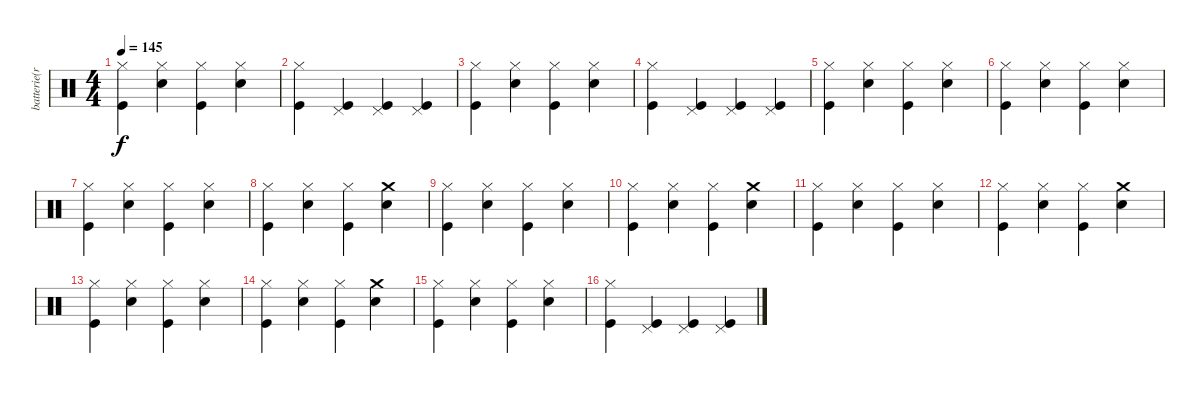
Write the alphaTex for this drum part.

\track ("batterie(rimbaud)" "batterie(r") {instrument percussion}
\staff {score}
\articulation defaults
\ts (4 4)
\tempo 145
\clef neutral
\ks c
("Hi-Hat (closed)" "Kick (hit)").4{dy f} ("Hi-Hat (closed)" "Snare (hit) 2").4 ("Hi-Hat (closed)" "Kick (hit)").4 ("Hi-Hat (closed)" "Snare (hit) 2").4 |
("Hi-Hat (closed)" "Kick (hit)").4 ("Pedal Hi-Hat (hit)" "Kick (hit)").4 ("Pedal Hi-Hat (hit)" "Kick (hit)").4 ("Pedal Hi-Hat (hit)" "Kick (hit)").4 |
("Hi-Hat (closed)" "Kick (hit)").4 ("Hi-Hat (closed)" "Snare (hit) 2").4 ("Hi-Hat (closed)" "Kick (hit)").4 ("Hi-Hat (closed)" "Snare (hit) 2").4 |
("Hi-Hat (closed)" "Kick (hit)").4 ("Pedal Hi-Hat (hit)" "Kick (hit)").4 ("Pedal Hi-Hat (hit)" "Kick (hit)").4 ("Pedal Hi-Hat (hit)" "Kick (hit)").4 |
("Hi-Hat (closed)" "Kick (hit)").4 ("Hi-Hat (closed)" "Snare (hit) 2").4 ("Hi-Hat (closed)" "Kick (hit)").4 ("Hi-Hat (closed)" "Snare (hit) 2").4 |
("Hi-Hat (closed)" "Kick (hit)").4 ("Hi-Hat (closed)" "Snare (hit) 2").4 ("Hi-Hat (closed)" "Kick (hit)").4 ("Hi-Hat (closed)" "Snare (hit) 2").4 |
("Hi-Hat (closed)" "Kick (hit)").4 ("Hi-Hat (closed)" "Snare (hit) 2").4 ("Hi-Hat (closed)" "Kick (hit)").4 ("Hi-Hat (closed)" "Snare (hit) 2").4 |
("Hi-Hat (closed)" "Kick (hit)").4 ("Hi-Hat (closed)" "Snare (hit) 2").4 ("Hi-Hat (closed)" "Kick (hit)").4 ("Crash medium (hit)" "Snare (hit) 2").4 |
("Hi-Hat (closed)" "Kick (hit)").4 ("Hi-Hat (closed)" "Snare (hit) 2").4 ("Hi-Hat (closed)" "Kick (hit)").4 ("Hi-Hat (closed)" "Snare (hit) 2").4 |
("Hi-Hat (closed)" "Kick (hit)").4 ("Hi-Hat (closed)" "Snare (hit) 2").4 ("Hi-Hat (closed)" "Kick (hit)").4 ("Crash medium (hit)" "Snare (hit) 2").4 |
("Hi-Hat (closed)" "Kick (hit)").4 ("Hi-Hat (closed)" "Snare (hit) 2").4 ("Hi-Hat (closed)" "Kick (hit)").4 ("Hi-Hat (closed)" "Snare (hit) 2").4 |
("Hi-Hat (closed)" "Kick (hit)").4 ("Hi-Hat (closed)" "Snare (hit) 2").4 ("Hi-Hat (closed)" "Kick (hit)").4 ("Crash medium (hit)" "Snare (hit) 2").4 |
("Hi-Hat (closed)" "Kick (hit)").4 ("Hi-Hat (closed)" "Snare (hit) 2").4 ("Hi-Hat (closed)" "Kick (hit)").4 ("Hi-Hat (closed)" "Snare (hit) 2").4 |
("Hi-Hat (closed)" "Kick (hit)").4 ("Hi-Hat (closed)" "Snare (hit) 2").4 ("Hi-Hat (closed)" "Kick (hit)").4 ("Crash medium (hit)" "Snare (hit) 2").4 |
("Hi-Hat (closed)" "Kick (hit)").4 ("Hi-Hat (closed)" "Snare (hit) 2").4 ("Hi-Hat (closed)" "Kick (hit)").4 ("Hi-Hat (closed)" "Snare (hit) 2").4 |
("Hi-Hat (closed)" "Kick (hit)").4 ("Pedal Hi-Hat (hit)" "Kick (hit)").4 ("Pedal Hi-Hat (hit)" "Kick (hit)").4 ("Pedal Hi-Hat (hit)" "Kick (hit)").4
